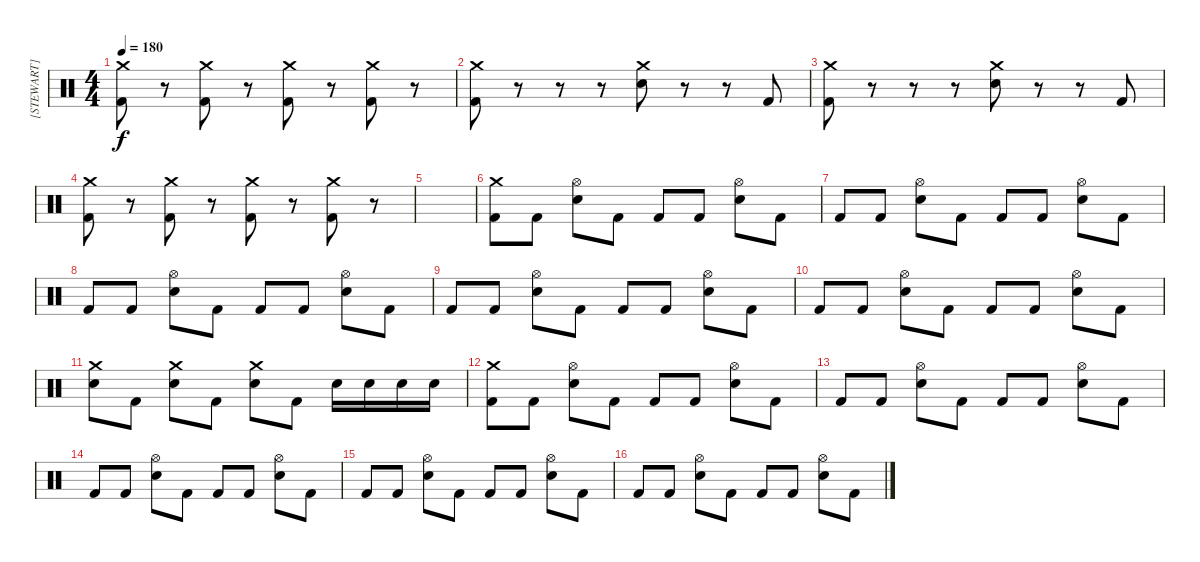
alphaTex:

\track ("[STEWART]" "[STEWART]") {instrument percussion}
\staff {score}
\articulation defaults
\ts (4 4)
\tempo 180
\clef neutral
\ks c
("Crash medium (hit)" "Kick (hit) 2").8{dy f} r.8 ("Crash medium (hit)" "Kick (hit) 2").8 r.8 ("Crash medium (hit)" "Kick (hit) 2").8 r.8 ("Crash medium (hit)" "Kick (hit) 2").8 r.8 |
("Crash medium (hit)" "Kick (hit) 2").8 r.8 r.8 r.8 ("Crash medium (hit)" "Snare (hit) 2").8 r.8 r.8 "Kick (hit) 2".8 |
("Crash medium (hit)" "Kick (hit) 2").8 r.8 r.8 r.8 ("Crash medium (hit)" "Snare (hit) 2").8 r.8 r.8 "Kick (hit) 2".8 |
("Crash medium (hit)" "Kick (hit) 2").8 r.8 ("Crash medium (hit)" "Kick (hit) 2").8 r.8 ("Crash medium (hit)" "Kick (hit) 2").8 r.8 ("Crash medium (hit)" "Kick (hit) 2").8 r.8 |
|
("Crash medium (hit)" "Kick (hit) 2").8 "Kick (hit) 2".8 ("Hi-Hat (open)" "Snare (hit) 2").8 "Kick (hit) 2".8 "Kick (hit) 2".8 "Kick (hit) 2".8 ("Hi-Hat (open)" "Snare (hit) 2").8 "Kick (hit) 2".8 |
"Kick (hit) 2".8 "Kick (hit) 2".8 ("Hi-Hat (open)" "Snare (hit) 2").8 "Kick (hit) 2".8 "Kick (hit) 2".8 "Kick (hit) 2".8 ("Hi-Hat (open)" "Snare (hit) 2").8 "Kick (hit) 2".8 |
"Kick (hit) 2".8 "Kick (hit) 2".8 ("Hi-Hat (open)" "Snare (hit) 2").8 "Kick (hit) 2".8 "Kick (hit) 2".8 "Kick (hit) 2".8 ("Hi-Hat (open)" "Snare (hit) 2").8 "Kick (hit) 2".8 |
"Kick (hit) 2".8 "Kick (hit) 2".8 ("Hi-Hat (open)" "Snare (hit) 2").8 "Kick (hit) 2".8 "Kick (hit) 2".8 "Kick (hit) 2".8 ("Hi-Hat (open)" "Snare (hit) 2").8 "Kick (hit) 2".8 |
"Kick (hit) 2".8 "Kick (hit) 2".8 ("Hi-Hat (open)" "Snare (hit) 2").8 "Kick (hit) 2".8 "Kick (hit) 2".8 "Kick (hit) 2".8 ("Hi-Hat (open)" "Snare (hit) 2").8 "Kick (hit) 2".8 |
("Crash medium (hit)" "Snare (hit) 2").8 "Kick (hit) 2".8 ("Crash medium (hit)" "Snare (hit) 2").8 "Kick (hit) 2".8 ("Crash medium (hit)" "Snare (hit) 2").8 "Kick (hit) 2".8 "Snare (hit) 2".16 "Snare (hit) 2".16 "Snare (hit) 2".16 "Snare (hit) 2".16 |
("Crash medium (hit)" "Kick (hit) 2").8 "Kick (hit) 2".8 ("Hi-Hat (open)" "Snare (hit) 2").8 "Kick (hit) 2".8 "Kick (hit) 2".8 "Kick (hit) 2".8 ("Hi-Hat (open)" "Snare (hit) 2").8 "Kick (hit) 2".8 |
"Kick (hit) 2".8 "Kick (hit) 2".8 ("Hi-Hat (open)" "Snare (hit) 2").8 "Kick (hit) 2".8 "Kick (hit) 2".8 "Kick (hit) 2".8 ("Hi-Hat (open)" "Snare (hit) 2").8 "Kick (hit) 2".8 |
"Kick (hit) 2".8 "Kick (hit) 2".8 ("Hi-Hat (open)" "Snare (hit) 2").8 "Kick (hit) 2".8 "Kick (hit) 2".8 "Kick (hit) 2".8 ("Hi-Hat (open)" "Snare (hit) 2").8 "Kick (hit) 2".8 |
"Kick (hit) 2".8 "Kick (hit) 2".8 ("Hi-Hat (open)" "Snare (hit) 2").8 "Kick (hit) 2".8 "Kick (hit) 2".8 "Kick (hit) 2".8 ("Hi-Hat (open)" "Snare (hit) 2").8 "Kick (hit) 2".8 |
"Kick (hit) 2".8 "Kick (hit) 2".8 ("Hi-Hat (open)" "Snare (hit) 2").8 "Kick (hit) 2".8 "Kick (hit) 2".8 "Kick (hit) 2".8 ("Hi-Hat (open)" "Snare (hit) 2").8 "Kick (hit) 2".8
